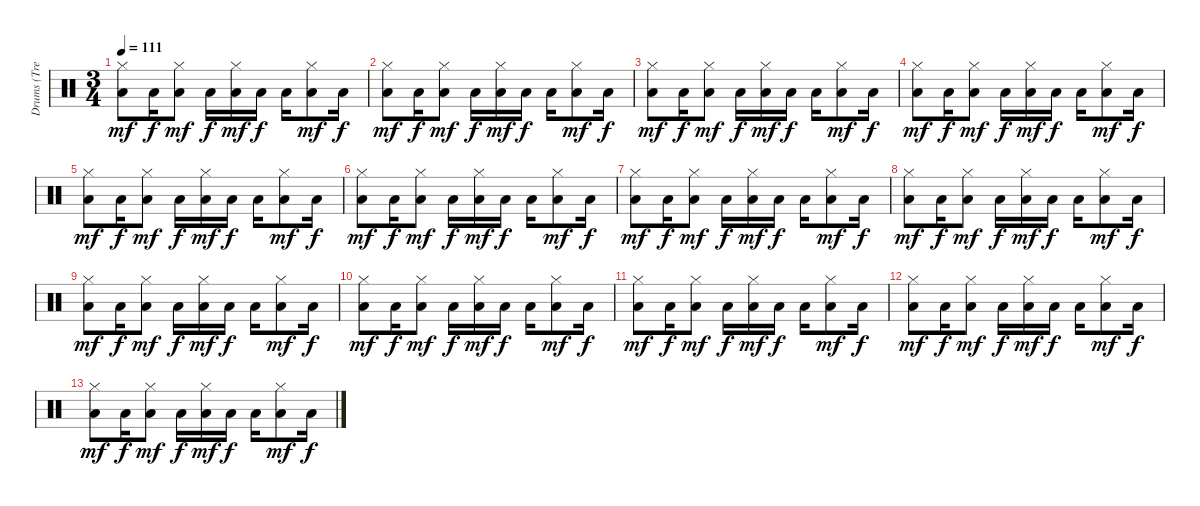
\track ("Drums (Tre Cool)" "Drums (Tre") {instrument percussion}
\staff {score}
\articulation defaults
\ts (3 4)
\tempo 111
\clef neutral
\ks c
("Hi-Hat (closed)" "Low Floor Tom (hit)").8{dy mf} "Low Floor Tom (hit)".16{dy f} ("Hi-Hat (closed)" "Low Tom (hit)").8{dy mf} "Low Tom (hit)".16{dy f} ("Hi-Hat (closed)" "Low Floor Tom (hit)").16{dy mf} "Low Floor Tom (hit)".16{dy f} "Low Floor Tom (hit)".16 ("Hi-Hat (closed)" "Low Tom (hit)").8{dy mf} "Low Tom (hit)".16{dy f} |
("Hi-Hat (closed)" "Low Floor Tom (hit)").8{dy mf} "Low Floor Tom (hit)".16{dy f} ("Hi-Hat (closed)" "Low Tom (hit)").8{dy mf} "Low Tom (hit)".16{dy f} ("Hi-Hat (closed)" "Low Floor Tom (hit)").16{dy mf} "Low Floor Tom (hit)".16{dy f} "Low Floor Tom (hit)".16 ("Hi-Hat (closed)" "Low Tom (hit)").8{dy mf} "Low Tom (hit)".16{dy f} |
("Hi-Hat (closed)" "Low Floor Tom (hit)").8{dy mf} "Low Floor Tom (hit)".16{dy f} ("Hi-Hat (closed)" "Low Tom (hit)").8{dy mf} "Low Tom (hit)".16{dy f} ("Hi-Hat (closed)" "Low Floor Tom (hit)").16{dy mf} "Low Floor Tom (hit)".16{dy f} "Low Floor Tom (hit)".16 ("Hi-Hat (closed)" "Low Tom (hit)").8{dy mf} "Low Tom (hit)".16{dy f} |
("Hi-Hat (closed)" "Low Floor Tom (hit)").8{dy mf} "Low Floor Tom (hit)".16{dy f} ("Hi-Hat (closed)" "Low Tom (hit)").8{dy mf} "Low Tom (hit)".16{dy f} ("Hi-Hat (closed)" "Low Floor Tom (hit)").16{dy mf} "Low Floor Tom (hit)".16{dy f} "Low Floor Tom (hit)".16 ("Hi-Hat (closed)" "Low Tom (hit)").8{dy mf} "Low Tom (hit)".16{dy f} |
("Hi-Hat (closed)" "Low Floor Tom (hit)").8{dy mf} "Low Floor Tom (hit)".16{dy f} ("Hi-Hat (closed)" "Low Tom (hit)").8{dy mf} "Low Tom (hit)".16{dy f} ("Hi-Hat (closed)" "Low Floor Tom (hit)").16{dy mf} "Low Floor Tom (hit)".16{dy f} "Low Floor Tom (hit)".16 ("Hi-Hat (closed)" "Low Tom (hit)").8{dy mf} "Low Tom (hit)".16{dy f} |
("Hi-Hat (closed)" "Low Floor Tom (hit)").8{dy mf} "Low Floor Tom (hit)".16{dy f} ("Hi-Hat (closed)" "Low Tom (hit)").8{dy mf} "Low Tom (hit)".16{dy f} ("Hi-Hat (closed)" "Low Floor Tom (hit)").16{dy mf} "Low Floor Tom (hit)".16{dy f} "Low Floor Tom (hit)".16 ("Hi-Hat (closed)" "Low Tom (hit)").8{dy mf} "Low Tom (hit)".16{dy f} |
("Hi-Hat (closed)" "Low Floor Tom (hit)").8{dy mf} "Low Floor Tom (hit)".16{dy f} ("Hi-Hat (closed)" "Low Tom (hit)").8{dy mf} "Low Tom (hit)".16{dy f} ("Hi-Hat (closed)" "Low Floor Tom (hit)").16{dy mf} "Low Floor Tom (hit)".16{dy f} "Low Floor Tom (hit)".16 ("Hi-Hat (closed)" "Low Tom (hit)").8{dy mf} "Low Tom (hit)".16{dy f} |
("Hi-Hat (closed)" "Low Floor Tom (hit)").8{dy mf} "Low Floor Tom (hit)".16{dy f} ("Hi-Hat (closed)" "Low Tom (hit)").8{dy mf} "Low Tom (hit)".16{dy f} ("Hi-Hat (closed)" "Low Floor Tom (hit)").16{dy mf} "Low Floor Tom (hit)".16{dy f} "Low Floor Tom (hit)".16 ("Hi-Hat (closed)" "Low Tom (hit)").8{dy mf} "Low Tom (hit)".16{dy f} |
("Hi-Hat (closed)" "Low Floor Tom (hit)").8{dy mf} "Low Floor Tom (hit)".16{dy f} ("Hi-Hat (closed)" "Low Tom (hit)").8{dy mf} "Low Tom (hit)".16{dy f} ("Hi-Hat (closed)" "Low Floor Tom (hit)").16{dy mf} "Low Floor Tom (hit)".16{dy f} "Low Floor Tom (hit)".16 ("Hi-Hat (closed)" "Low Tom (hit)").8{dy mf} "Low Tom (hit)".16{dy f} |
("Hi-Hat (closed)" "Low Floor Tom (hit)").8{dy mf} "Low Floor Tom (hit)".16{dy f} ("Hi-Hat (closed)" "Low Tom (hit)").8{dy mf} "Low Tom (hit)".16{dy f} ("Hi-Hat (closed)" "Low Floor Tom (hit)").16{dy mf} "Low Floor Tom (hit)".16{dy f} "Low Floor Tom (hit)".16 ("Hi-Hat (closed)" "Low Tom (hit)").8{dy mf} "Low Tom (hit)".16{dy f} |
("Hi-Hat (closed)" "Low Floor Tom (hit)").8{dy mf} "Low Floor Tom (hit)".16{dy f} ("Hi-Hat (closed)" "Low Tom (hit)").8{dy mf} "Low Tom (hit)".16{dy f} ("Hi-Hat (closed)" "Low Floor Tom (hit)").16{dy mf} "Low Floor Tom (hit)".16{dy f} "Low Floor Tom (hit)".16 ("Hi-Hat (closed)" "Low Tom (hit)").8{dy mf} "Low Tom (hit)".16{dy f} |
("Hi-Hat (closed)" "Low Floor Tom (hit)").8{dy mf} "Low Floor Tom (hit)".16{dy f} ("Hi-Hat (closed)" "Low Tom (hit)").8{dy mf} "Low Tom (hit)".16{dy f} ("Hi-Hat (closed)" "Low Floor Tom (hit)").16{dy mf} "Low Floor Tom (hit)".16{dy f} "Low Floor Tom (hit)".16 ("Hi-Hat (closed)" "Low Tom (hit)").8{dy mf} "Low Tom (hit)".16{dy f} |
("Hi-Hat (closed)" "Low Floor Tom (hit)").8{dy mf} "Low Floor Tom (hit)".16{dy f} ("Hi-Hat (closed)" "Low Tom (hit)").8{dy mf} "Low Tom (hit)".16{dy f} ("Hi-Hat (closed)" "Low Floor Tom (hit)").16{dy mf} "Low Floor Tom (hit)".16{dy f} "Low Floor Tom (hit)".16 ("Hi-Hat (closed)" "Low Tom (hit)").8{dy mf} "Low Tom (hit)".16{dy f}
